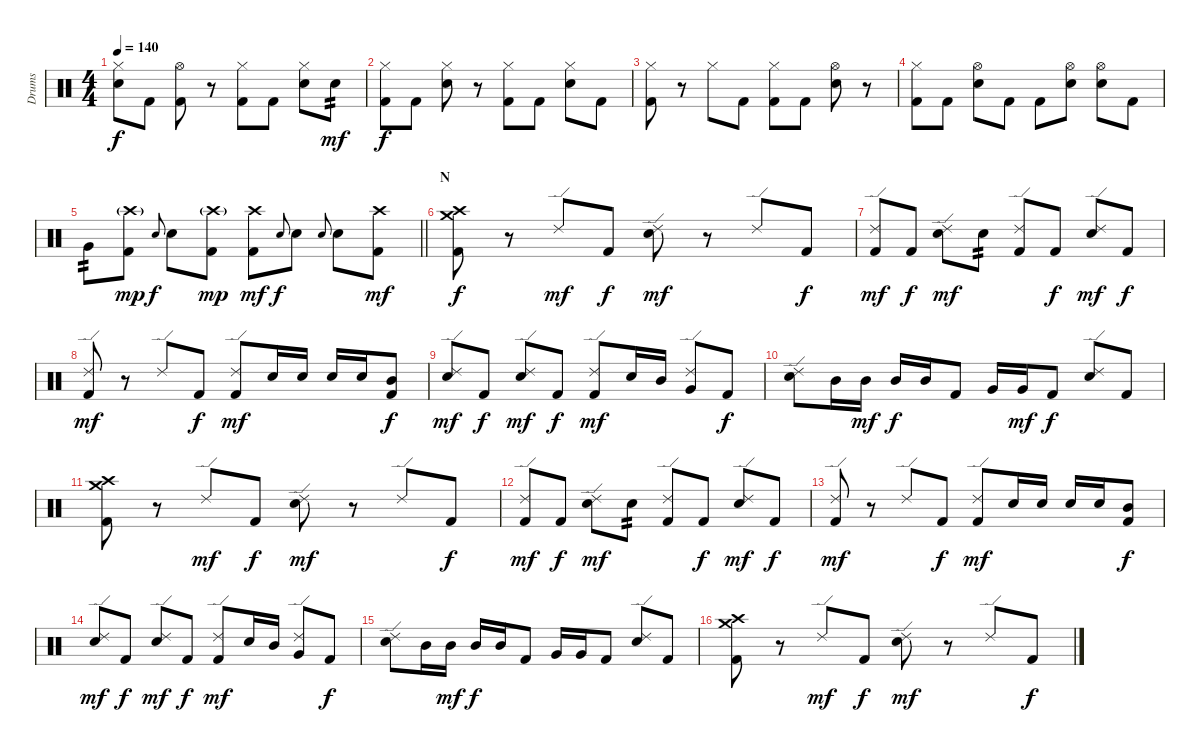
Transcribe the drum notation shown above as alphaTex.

\track ("Drums" "Drums") {instrument percussion}
\staff {score}
\articulation defaults
\ts (4 4)
\tempo 140
\clef neutral
\ks c
("Hi-Hat (closed)" "Snare (hit) 2").8{dy f} "Kick (hit) 2".8 ("Hi-Hat (open)" "Kick (hit) 2").8 r.8 ("Hi-Hat (closed)" "Kick (hit) 2").8 "Kick (hit) 2".8 ("Hi-Hat (closed)" "Snare (hit) 2").8 "Snare (hit) 2".8{tp 2 dy mf} |
("Hi-Hat (closed)" "Kick (hit) 2").8{dy f} "Kick (hit) 2".8 ("Hi-Hat (closed)" "Snare (hit) 2").8 r.8 ("Hi-Hat (closed)" "Kick (hit) 2").8 "Kick (hit) 2".8 ("Hi-Hat (closed)" "Snare (hit) 2").8 "Kick (hit) 2".8 |
("Hi-Hat (closed)" "Kick (hit) 2").8 r.8 "Hi-Hat (closed)".8 "Kick (hit) 2".8 ("Hi-Hat (closed)" "Kick (hit) 2").8 "Kick (hit) 2".8 ("Hi-Hat (open)" "Snare (hit) 2").8 r.8 |
("Hi-Hat (closed)" "Kick (hit) 2").8 "Kick (hit) 2".8 ("Hi-Hat (open)" "Snare (hit) 2").8 "Kick (hit) 2".8 "Kick (hit) 2".8 ("Hi-Hat (open)" "Snare (hit) 2").8 ("Hi-Hat (open)" "Snare (hit) 2").8 "Kick (hit) 2".8 |
\barLineRight lightlight "Very Low Tom (hit)".8{tp 2}
("Crash high (hit)"{g} "Kick (hit) 2").8{dy mp} "Snare (hit) 2".8{gr onbeat dy f} "Snare (hit) 2".8 ("Crash high (hit)"{g} "Kick (hit) 2").8{dy mp} ("Crash high (hit)" "Kick (hit) 2").8{dy mf} "Snare (hit) 2".8{gr onbeat dy f} "Snare (hit) 2".8 "Snare (hit) 2".8{gr onbeat} "Snare (hit) 2".8 ("Crash high (hit)" "Kick (hit) 2").8{dy mf} |
\section ("" "N")
("Crash medium (hit)" "Crash high (hit)" "Kick (hit) 2").8{dy f} r.8 "Ride (edge) 2".8{dy mf} "Kick (hit) 2".8{dy f} ("Ride (edge) 2" "Snare (hit) 2").8{dy mf} r.8 "Ride (edge) 2".8 "Kick (hit) 2".8{dy f} |
("Ride (edge) 2" "Kick (hit) 2").8{dy mf} "Kick (hit) 2".8{dy f} ("Ride (edge) 2" "Snare (hit) 2").8{dy mf} "Snare (hit) 2".8{tp 2} ("Ride (edge) 2" "Kick (hit) 2").8 "Kick (hit) 2".8{dy f} ("Ride (edge) 2" "Snare (hit) 2").8{dy mf} "Kick (hit) 2".8{dy f} |
("Ride (edge) 2" "Kick (hit) 2").8{dy mf} r.8 "Ride (edge) 2".8 "Kick (hit) 2".8{dy f} ("Ride (edge) 2" "Kick (hit) 2").8{dy mf} "Snare (hit) 2".16 "Snare (hit) 2".16 "Snare (hit) 2".16 "Snare (hit) 2".16 ("Mid Tom (hit)" "Kick (hit) 2").8{dy f} |
("Ride (edge) 2" "Snare (hit) 2").8{dy mf} "Kick (hit) 2".8{dy f} ("Ride (edge) 2" "Snare (hit) 2").8{dy mf} "Kick (hit) 2".8{dy f} ("Ride (edge) 2" "Kick (hit) 2").8{dy mf} "Snare (hit) 2".16 "Mid Tom (hit)".16 ("Ride (edge) 2" "Very Low Tom (hit)").8 "Kick (hit) 2".8{dy f} |
("Ride (edge) 2" "Snare (hit) 2").8 "Mid Tom (hit)".16 "Mid Tom (hit)".16{dy mf} "Mid Tom (hit)".16{dy f} "Mid Tom (hit)".16 "Kick (hit) 2".8 "Very Low Tom (hit)".16 "Very Low Tom (hit)".16{dy mf} "Kick (hit) 2".8{dy f} ("Ride (edge) 2" "Snare (hit) 2").8 "Kick (hit) 2".8 |
("Crash medium (hit)" "Crash high (hit)" "Kick (hit) 2").8 r.8 "Ride (edge) 2".8{dy mf} "Kick (hit) 2".8{dy f} ("Ride (edge) 2" "Snare (hit) 2").8{dy mf} r.8 "Ride (edge) 2".8 "Kick (hit) 2".8{dy f} |
("Ride (edge) 2" "Kick (hit) 2").8{dy mf} "Kick (hit) 2".8{dy f} ("Ride (edge) 2" "Snare (hit) 2").8{dy mf} "Snare (hit) 2".8{tp 2} ("Ride (edge) 2" "Kick (hit) 2").8 "Kick (hit) 2".8{dy f} ("Ride (edge) 2" "Snare (hit) 2").8{dy mf} "Kick (hit) 2".8{dy f} |
("Ride (edge) 2" "Kick (hit) 2").8{dy mf} r.8 "Ride (edge) 2".8 "Kick (hit) 2".8{dy f} ("Ride (edge) 2" "Kick (hit) 2").8{dy mf} "Snare (hit) 2".16 "Snare (hit) 2".16 "Snare (hit) 2".16 "Snare (hit) 2".16 ("Mid Tom (hit)" "Kick (hit) 2").8{dy f} |
("Ride (edge) 2" "Snare (hit) 2").8{dy mf} "Kick (hit) 2".8{dy f} ("Ride (edge) 2" "Snare (hit) 2").8{dy mf} "Kick (hit) 2".8{dy f} ("Ride (edge) 2" "Kick (hit) 2").8{dy mf} "Snare (hit) 2".16 "Mid Tom (hit)".16 ("Ride (edge) 2" "Very Low Tom (hit)").8 "Kick (hit) 2".8{dy f} |
("Ride (edge) 2" "Snare (hit) 2").8 "Mid Tom (hit)".16 "Mid Tom (hit)".16{dy mf} "Mid Tom (hit)".16{dy f} "Mid Tom (hit)".16 "Kick (hit) 2".8 "Very Low Tom (hit)".16 "Very Low Tom (hit)".16 "Kick (hit) 2".8 ("Ride (edge) 2" "Snare (hit) 2").8 "Kick (hit) 2".8 |
("Crash medium (hit)" "Crash high (hit)" "Kick (hit) 2").8 r.8 "Ride (edge) 2".8{dy mf} "Kick (hit) 2".8{dy f} ("Ride (edge) 2" "Snare (hit) 2").8{dy mf} r.8 "Ride (edge) 2".8 "Kick (hit) 2".8{dy f}
